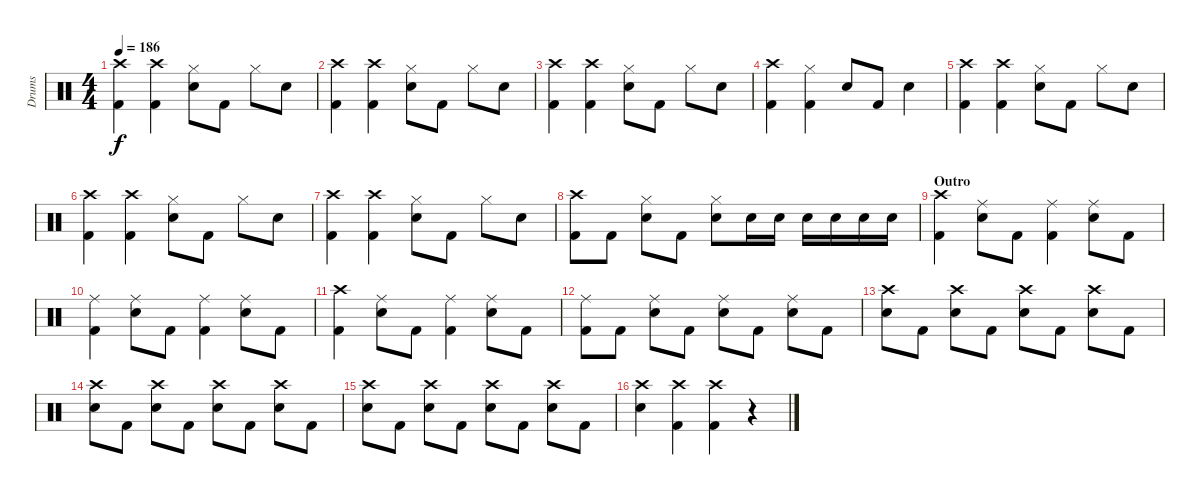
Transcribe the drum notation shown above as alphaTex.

\track ("Drums" "Drums") {instrument percussion}
\staff {score}
\articulation defaults
\ts (4 4)
\tempo 186
\clef neutral
\ks c
("Crash high (hit)" "Kick (hit) 2").4{dy f} ("Crash high (hit)" "Kick (hit) 2").4 ("Hi-Hat (closed)" "Snare (hit) 2").8 "Kick (hit) 2".8 "Hi-Hat (closed)".8 "Snare (hit) 2".8 |
("Crash high (hit)" "Kick (hit) 2").4 ("Crash high (hit)" "Kick (hit) 2").4 ("Hi-Hat (closed)" "Snare (hit) 2").8 "Kick (hit) 2".8 "Hi-Hat (closed)".8 "Snare (hit) 2".8 |
("Crash high (hit)" "Kick (hit) 2").4 ("Crash high (hit)" "Kick (hit) 2").4 ("Hi-Hat (closed)" "Snare (hit) 2").8 "Kick (hit) 2".8 "Hi-Hat (closed)".8 "Snare (hit) 2".8 |
("Crash high (hit)" "Kick (hit) 2").4 ("Hi-Hat (closed)" "Kick (hit) 2").4 "Snare (hit) 2".8 "Kick (hit) 2".8 "Snare (hit) 2".4 |
("Crash high (hit)" "Kick (hit) 2").4 ("Crash high (hit)" "Kick (hit) 2").4 ("Hi-Hat (closed)" "Snare (hit) 2").8 "Kick (hit) 2".8 "Hi-Hat (closed)".8 "Snare (hit) 2".8 |
("Crash high (hit)" "Kick (hit) 2").4 ("Crash high (hit)" "Kick (hit) 2").4 ("Hi-Hat (closed)" "Snare (hit) 2").8 "Kick (hit) 2".8 "Hi-Hat (closed)".8 "Snare (hit) 2".8 |
("Crash high (hit)" "Kick (hit) 2").4 ("Crash high (hit)" "Kick (hit) 2").4 ("Hi-Hat (closed)" "Snare (hit) 2").8 "Kick (hit) 2".8 "Hi-Hat (closed)".8 "Snare (hit) 2".8 |
("Crash high (hit)" "Kick (hit) 2").8 "Kick (hit) 2".8 ("Hi-Hat (closed)" "Snare (hit) 2").8 "Kick (hit) 2".8 ("Hi-Hat (closed)" "Snare (hit) 2").8 "Snare (hit) 2".16 "Snare (hit) 2".16 "Snare (hit) 2".16 "Snare (hit) 2".16 "Snare (hit) 2".16 "Snare (hit) 2".16 |
\section ("" "Outro")
("Crash high (hit)" "Kick (hit) 2").4 ("Ride (middle)" "Snare (hit) 2").8 "Kick (hit) 2".8 ("Ride (middle)" "Kick (hit) 2").4 ("Ride (middle)" "Snare (hit) 2").8 "Kick (hit) 2".8 |
("Ride (middle)" "Kick (hit) 2").4 ("Ride (middle)" "Snare (hit) 2").8 "Kick (hit) 2".8 ("Ride (middle)" "Kick (hit) 2").4 ("Ride (middle)" "Snare (hit) 2").8 "Kick (hit) 2".8 |
("Crash high (hit)" "Kick (hit) 2").4 ("Ride (middle)" "Snare (hit) 2").8 "Kick (hit) 2".8 ("Ride (middle)" "Kick (hit) 2").4 ("Ride (middle)" "Snare (hit) 2").8 "Kick (hit) 2".8 |
("Ride (middle)" "Kick (hit) 2").8 "Kick (hit) 2".8 ("Ride (middle)" "Snare (hit) 2").8 "Kick (hit) 2".8 ("Ride (middle)" "Snare (hit) 2").8 "Kick (hit) 2".8 ("Ride (middle)" "Snare (hit) 2").8 "Kick (hit) 2".8 |
("Crash high (hit)" "Snare (hit) 2").8 "Kick (hit) 2".8 ("Crash high (hit)" "Snare (hit) 2").8 "Kick (hit) 2".8 ("Crash high (hit)" "Snare (hit) 2").8 "Kick (hit) 2".8 ("Crash high (hit)" "Snare (hit) 2").8 "Kick (hit) 2".8 |
("Crash high (hit)" "Snare (hit) 2").8 "Kick (hit) 2".8 ("Crash high (hit)" "Snare (hit) 2").8 "Kick (hit) 2".8 ("Crash high (hit)" "Snare (hit) 2").8 "Kick (hit) 2".8 ("Crash high (hit)" "Snare (hit) 2").8 "Kick (hit) 2".8 |
("Crash high (hit)" "Snare (hit) 2").8 "Kick (hit) 2".8 ("Crash high (hit)" "Snare (hit) 2").8 "Kick (hit) 2".8 ("Crash high (hit)" "Snare (hit) 2").8 "Kick (hit) 2".8 ("Crash high (hit)" "Snare (hit) 2").8 "Kick (hit) 2".8 |
("Crash high (hit)" "Snare (hit) 2").4 ("Crash high (hit)" "Kick (hit) 2").4 ("Crash high (hit)" "Kick (hit) 2").4 r.4
